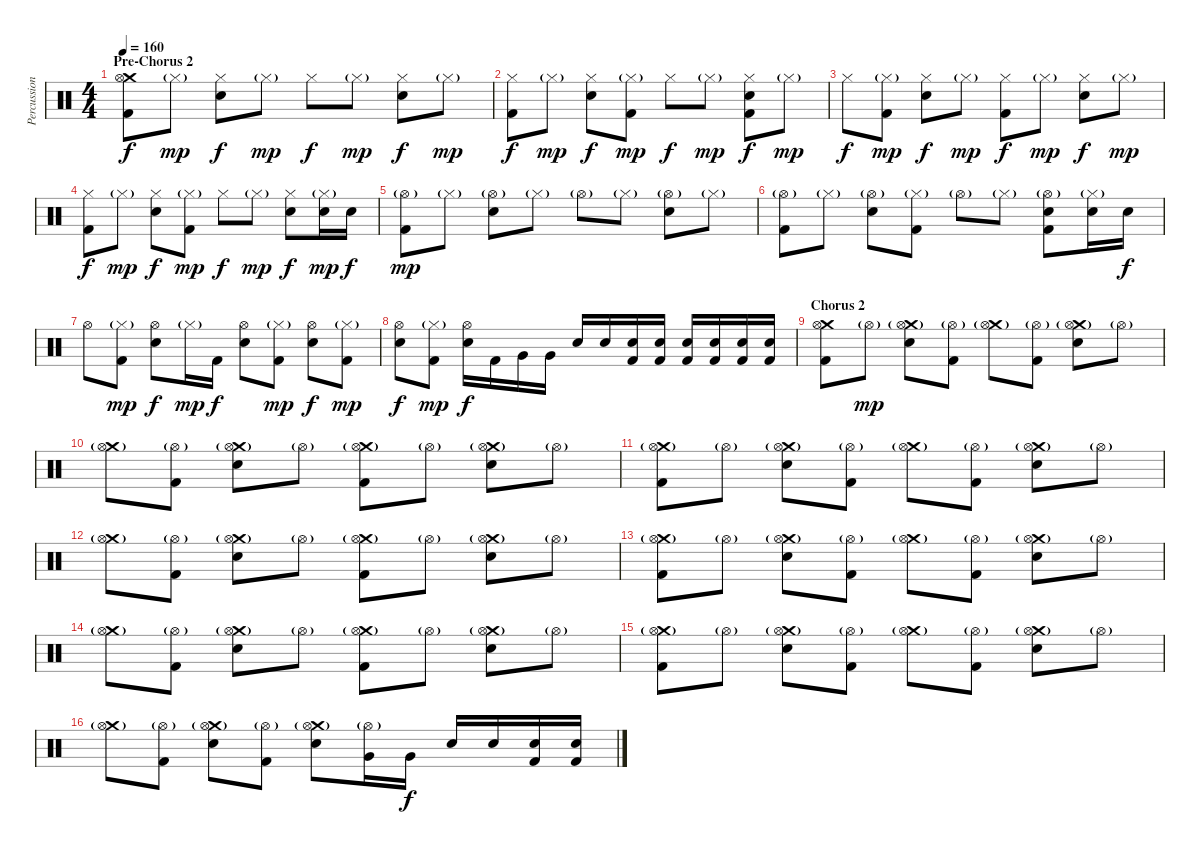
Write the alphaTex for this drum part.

\track ("Percussions" "Percussion") {instrument percussion}
\staff {score}
\articulation defaults
\ts (4 4)
\section ("" "Pre-Chorus 2")
\tempo 160
\clef neutral
\ks c
("Crash medium (hit)" "Hi-Hat (open)" "Kick (hit) 2").8{dy f} "Hi-Hat (closed)"{g}.8{dy mp} ("Hi-Hat (closed)" "Snare (hit) 2").8{dy f} "Hi-Hat (closed)"{g}.8{dy mp} "Hi-Hat (closed)".8{dy f} "Hi-Hat (closed)"{g}.8{dy mp} ("Hi-Hat (closed)" "Snare (hit) 2").8{dy f} "Hi-Hat (closed)"{g}.8{dy mp} |
("Hi-Hat (closed)" "Kick (hit) 2").8{dy f} "Hi-Hat (closed)"{g}.8{dy mp} ("Hi-Hat (closed)" "Snare (hit) 2").8{dy f} ("Hi-Hat (closed)"{g} "Kick (hit) 2").8{dy mp} "Hi-Hat (closed)".8{dy f} "Hi-Hat (closed)"{g}.8{dy mp} ("Hi-Hat (closed)" "Snare (hit) 2" "Kick (hit) 2").8{dy f} "Hi-Hat (closed)"{g}.8{dy mp} |
"Hi-Hat (closed)".8{dy f} ("Hi-Hat (closed)"{g} "Kick (hit) 2").8{dy mp} ("Hi-Hat (closed)" "Snare (hit) 2").8{dy f} "Hi-Hat (closed)"{g}.8{dy mp} ("Hi-Hat (closed)" "Kick (hit) 2").8{dy f} "Hi-Hat (closed)"{g}.8{dy mp} ("Hi-Hat (closed)" "Snare (hit) 2").8{dy f} "Hi-Hat (closed)"{g}.8{dy mp} |
("Hi-Hat (closed)" "Kick (hit) 2").8{dy f} "Hi-Hat (closed)"{g}.8{dy mp} ("Hi-Hat (closed)" "Snare (hit) 2").8{dy f} ("Hi-Hat (closed)"{g} "Kick (hit) 2").8{dy mp} "Hi-Hat (closed)".8{dy f} "Hi-Hat (closed)"{g}.8{dy mp} ("Hi-Hat (closed)" "Snare (hit) 2").8{dy f} ("Hi-Hat (closed)"{g} "Snare (hit) 2").16{dy mp} "Snare (hit) 2".16{dy f} |
("Hi-Hat (open)"{g} "Kick (hit) 2").8{dy mp} "Hi-Hat (closed)"{g}.8 ("Hi-Hat (open)"{g} "Snare (hit) 2").8 "Hi-Hat (closed)"{g}.8 "Hi-Hat (open)"{g}.8 "Hi-Hat (closed)"{g}.8 ("Hi-Hat (open)"{g} "Snare (hit) 2").8 "Hi-Hat (closed)"{g}.8 |
("Hi-Hat (open)"{g} "Kick (hit) 2").8 "Hi-Hat (closed)"{g}.8 ("Hi-Hat (open)"{g} "Snare (hit) 2").8 ("Hi-Hat (closed)"{g} "Kick (hit) 2").8 "Hi-Hat (open)"{g}.8 "Hi-Hat (closed)"{g}.8 ("Hi-Hat (open)"{g} "Snare (hit) 2" "Kick (hit) 2").8 ("Hi-Hat (closed)"{g} "Snare (hit) 2").16 "Snare (hit) 2".16{dy f} |
"Hi-Hat (open)".8 ("Hi-Hat (closed)"{g} "Kick (hit) 2").8{dy mp} ("Hi-Hat (open)" "Snare (hit) 2").8{dy f} "Hi-Hat (closed)"{g}.16{dy mp} "Kick (hit) 2".16{dy f} ("Hi-Hat (open)" "Snare (hit) 2").8 ("Hi-Hat (closed)"{g} "Kick (hit) 2").8{dy mp} ("Hi-Hat (open)" "Snare (hit) 2").8{dy f} ("Hi-Hat (closed)"{g} "Kick (hit) 2").8{dy mp} |
("Hi-Hat (open)" "Snare (hit) 2").8{dy f} ("Hi-Hat (closed)"{g} "Kick (hit) 2").8{dy mp} ("Hi-Hat (open)" "Snare (hit) 2").16{dy f} "Kick (hit) 2".16 "Very Low Tom (hit)".16 "Very Low Tom (hit)".16 "Snare (hit) 2".16 "Snare (hit) 2".16 ("Snare (hit) 2" "Kick (hit) 2").16 ("Snare (hit) 2" "Kick (hit) 2").16 ("Snare (hit) 2" "Kick (hit) 2").16 ("Snare (hit) 2" "Kick (hit) 2").16 ("Snare (hit) 2" "Kick (hit) 2").16 ("Snare (hit) 2" "Kick (hit) 2").16 |
\section ("" "Chorus 2")
("Crash medium (hit)" "Hi-Hat (open)" "Kick (hit) 2").8 "Hi-Hat (open)"{g}.8{dy mp} ("Crash medium (hit)"{g} "Hi-Hat (open)" "Snare (hit) 2").8 ("Hi-Hat (open)"{g} "Kick (hit) 2").8 ("Crash medium (hit)"{g} "Hi-Hat (open)").8 ("Hi-Hat (open)"{g} "Kick (hit) 2").8 ("Crash medium (hit)"{g} "Hi-Hat (open)" "Snare (hit) 2").8 "Hi-Hat (open)"{g}.8 |
("Crash medium (hit)"{g} "Hi-Hat (open)").8 ("Hi-Hat (open)"{g} "Kick (hit) 2").8 ("Crash medium (hit)"{g} "Hi-Hat (open)" "Snare (hit) 2").8 "Hi-Hat (open)"{g}.8 ("Crash medium (hit)"{g} "Hi-Hat (open)" "Kick (hit) 2").8 "Hi-Hat (open)"{g}.8 ("Crash medium (hit)"{g} "Hi-Hat (open)" "Snare (hit) 2").8 "Hi-Hat (open)"{g}.8 |
("Crash medium (hit)"{g} "Hi-Hat (open)" "Kick (hit) 2").8 "Hi-Hat (open)"{g}.8 ("Crash medium (hit)"{g} "Hi-Hat (open)" "Snare (hit) 2").8 ("Hi-Hat (open)"{g} "Kick (hit) 2").8 ("Crash medium (hit)"{g} "Hi-Hat (open)").8 ("Hi-Hat (open)"{g} "Kick (hit) 2").8 ("Crash medium (hit)"{g} "Hi-Hat (open)" "Snare (hit) 2").8 "Hi-Hat (open)"{g}.8 |
("Crash medium (hit)"{g} "Hi-Hat (open)").8 ("Hi-Hat (open)"{g} "Kick (hit) 2").8 ("Crash medium (hit)"{g} "Hi-Hat (open)" "Snare (hit) 2").8 "Hi-Hat (open)"{g}.8 ("Crash medium (hit)"{g} "Hi-Hat (open)" "Kick (hit) 2").8 "Hi-Hat (open)"{g}.8 ("Crash medium (hit)"{g} "Hi-Hat (open)" "Snare (hit) 2").8 "Hi-Hat (open)"{g}.8 |
("Crash medium (hit)"{g} "Hi-Hat (open)" "Kick (hit) 2").8 "Hi-Hat (open)"{g}.8 ("Crash medium (hit)"{g} "Hi-Hat (open)" "Snare (hit) 2").8 ("Hi-Hat (open)"{g} "Kick (hit) 2").8 ("Crash medium (hit)"{g} "Hi-Hat (open)").8 ("Hi-Hat (open)"{g} "Kick (hit) 2").8 ("Crash medium (hit)"{g} "Hi-Hat (open)" "Snare (hit) 2").8 "Hi-Hat (open)"{g}.8 |
("Crash medium (hit)"{g} "Hi-Hat (open)").8 ("Hi-Hat (open)"{g} "Kick (hit) 2").8 ("Crash medium (hit)"{g} "Hi-Hat (open)" "Snare (hit) 2").8 "Hi-Hat (open)"{g}.8 ("Crash medium (hit)"{g} "Hi-Hat (open)" "Kick (hit) 2").8 "Hi-Hat (open)"{g}.8 ("Crash medium (hit)"{g} "Hi-Hat (open)" "Snare (hit) 2").8 "Hi-Hat (open)"{g}.8 |
("Crash medium (hit)"{g} "Hi-Hat (open)" "Kick (hit) 2").8 "Hi-Hat (open)"{g}.8 ("Crash medium (hit)"{g} "Hi-Hat (open)" "Snare (hit) 2").8 ("Hi-Hat (open)"{g} "Kick (hit) 2").8 ("Crash medium (hit)"{g} "Hi-Hat (open)").8 ("Hi-Hat (open)"{g} "Kick (hit) 2").8 ("Crash medium (hit)"{g} "Hi-Hat (open)" "Snare (hit) 2").8 "Hi-Hat (open)"{g}.8 |
("Crash medium (hit)"{g} "Hi-Hat (open)").8 ("Hi-Hat (open)"{g} "Kick (hit) 2").8 ("Crash medium (hit)"{g} "Hi-Hat (open)" "Snare (hit) 2").8 ("Hi-Hat (open)"{g} "Kick (hit) 2").8 ("Crash medium (hit)"{g} "Hi-Hat (open)" "Snare (hit) 2").8 ("Hi-Hat (open)"{g} "Very Low Tom (hit)").16 "Very Low Tom (hit)".16{dy f} "Snare (hit) 2".16 "Snare (hit) 2".16 ("Snare (hit) 2" "Kick (hit) 2").16 ("Snare (hit) 2" "Kick (hit) 2").16
